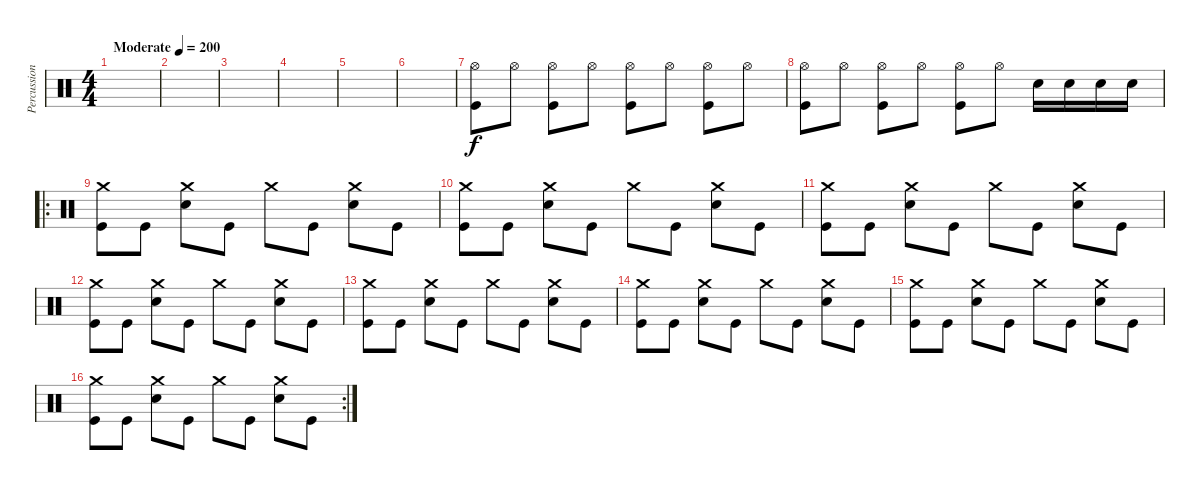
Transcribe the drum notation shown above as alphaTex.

\track ("Percussion" "Percussion") {instrument percussion}
\staff {score}
\articulation defaults
\ts (4 4)
\tempo (200 "Moderate")
\clef neutral
\ks c
|
|
|
|
|
|
("Hi-Hat (open)" "Kick (hit)").8 "Hi-Hat (open)".8 ("Hi-Hat (open)" "Kick (hit)").8 "Hi-Hat (open)".8 ("Hi-Hat (open)" "Kick (hit)").8 "Hi-Hat (open)".8 ("Hi-Hat (open)" "Kick (hit)").8 "Hi-Hat (open)".8 |
("Hi-Hat (open)" "Kick (hit)").8 "Hi-Hat (open)".8 ("Hi-Hat (open)" "Kick (hit)").8 "Hi-Hat (open)".8 ("Hi-Hat (open)" "Kick (hit)").8 "Hi-Hat (open)".8 "Snare (hit) 2".16 "Snare (hit) 2".16 "Snare (hit) 2".16 "Snare (hit) 2".16 |
\ro
("Crash medium (hit)" "Kick (hit)").8 "Kick (hit)".8 ("Crash medium (hit)" "Snare (hit) 2").8 "Kick (hit)".8 "Crash medium (hit)".8 "Kick (hit)".8 ("Crash medium (hit)" "Snare (hit) 2").8 "Kick (hit)".8 |
("Crash medium (hit)" "Kick (hit)").8 "Kick (hit)".8 ("Crash medium (hit)" "Snare (hit) 2").8 "Kick (hit)".8 "Crash medium (hit)".8 "Kick (hit)".8 ("Crash medium (hit)" "Snare (hit) 2").8 "Kick (hit)".8 |
("Crash medium (hit)" "Kick (hit)").8 "Kick (hit)".8 ("Crash medium (hit)" "Snare (hit) 2").8 "Kick (hit)".8 "Crash medium (hit)".8 "Kick (hit)".8 ("Crash medium (hit)" "Snare (hit) 2").8 "Kick (hit)".8 |
("Crash medium (hit)" "Kick (hit)").8 "Kick (hit)".8 ("Crash medium (hit)" "Snare (hit) 2").8 "Kick (hit)".8 "Crash medium (hit)".8 "Kick (hit)".8 ("Crash medium (hit)" "Snare (hit) 2").8 "Kick (hit)".8 |
("Crash medium (hit)" "Kick (hit)").8 "Kick (hit)".8 ("Crash medium (hit)" "Snare (hit) 2").8 "Kick (hit)".8 "Crash medium (hit)".8 "Kick (hit)".8 ("Crash medium (hit)" "Snare (hit) 2").8 "Kick (hit)".8 |
("Crash medium (hit)" "Kick (hit)").8 "Kick (hit)".8 ("Crash medium (hit)" "Snare (hit) 2").8 "Kick (hit)".8 "Crash medium (hit)".8 "Kick (hit)".8 ("Crash medium (hit)" "Snare (hit) 2").8 "Kick (hit)".8 |
("Crash medium (hit)" "Kick (hit)").8 "Kick (hit)".8 ("Crash medium (hit)" "Snare (hit) 2").8 "Kick (hit)".8 "Crash medium (hit)".8 "Kick (hit)".8 ("Crash medium (hit)" "Snare (hit) 2").8 "Kick (hit)".8 |
\rc 2
("Crash medium (hit)" "Kick (hit)").8 "Kick (hit)".8 ("Crash medium (hit)" "Snare (hit) 2").8 "Kick (hit)".8 "Crash medium (hit)".8 "Kick (hit)".8 ("Crash medium (hit)" "Snare (hit) 2").8 "Kick (hit)".8
